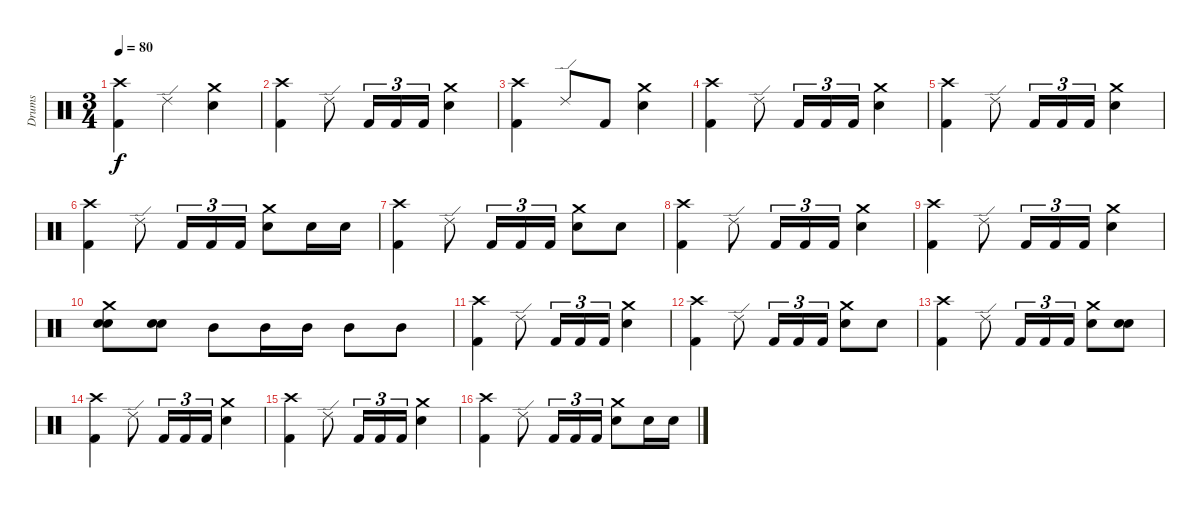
\track ("Drums" "Drums") {instrument percussion}
\staff {score}
\articulation defaults
\ts (3 4)
\tempo 80
\clef neutral
\ks c
("Crash high (hit)" "Kick (hit) 2").4{dy f} "Ride (edge) 2".4 ("Crash medium (hit)" "Electric Snare (hit)").4 |
("Crash high (hit)" "Kick (hit) 2").4 "Ride (edge) 2".8 "Kick (hit) 2".16{tu (3 2)} "Kick (hit) 2".16{tu (3 2)} "Kick (hit) 2".16{tu (3 2)} ("Crash medium (hit)" "Electric Snare (hit)").4 |
("Crash high (hit)" "Kick (hit) 2").4 "Ride (edge) 2".8 "Kick (hit) 2".8 ("Crash medium (hit)" "Electric Snare (hit)").4 |
("Crash high (hit)" "Kick (hit) 2").4 "Ride (edge) 2".8 "Kick (hit) 2".16{tu (3 2)} "Kick (hit) 2".16{tu (3 2)} "Kick (hit) 2".16{tu (3 2)} ("Crash medium (hit)" "Electric Snare (hit)").4 |
("Crash high (hit)" "Kick (hit) 2").4 "Ride (edge) 2".8 "Kick (hit) 2".16{tu (3 2)} "Kick (hit) 2".16{tu (3 2)} "Kick (hit) 2".16{tu (3 2)} ("Crash medium (hit)" "Electric Snare (hit)").4 |
("Crash high (hit)" "Kick (hit) 2").4 "Ride (edge) 2".8 "Kick (hit) 2".16{tu (3 2)} "Kick (hit) 2".16{tu (3 2)} "Kick (hit) 2".16{tu (3 2)} ("Crash medium (hit)" "Electric Snare (hit)").8 "Electric Snare (hit)".16 "Electric Snare (hit)".16 |
("Crash high (hit)" "Kick (hit) 2").4 "Ride (edge) 2".8 "Kick (hit) 2".16{tu (3 2)} "Kick (hit) 2".16{tu (3 2)} "Kick (hit) 2".16{tu (3 2)} ("Crash medium (hit)" "Electric Snare (hit)").8 "Electric Snare (hit)".8 |
("Crash high (hit)" "Kick (hit) 2").4 "Ride (edge) 2".8 "Kick (hit) 2".16{tu (3 2)} "Kick (hit) 2".16{tu (3 2)} "Kick (hit) 2".16{tu (3 2)} ("Crash medium (hit)" "Electric Snare (hit)").4 |
("Crash high (hit)" "Kick (hit) 2").4 "Ride (edge) 2".8 "Kick (hit) 2".16{tu (3 2)} "Kick (hit) 2".16{tu (3 2)} "Kick (hit) 2".16{tu (3 2)} ("Crash medium (hit)" "Electric Snare (hit)").4 |
("Crash medium (hit)" "Electric Snare (hit)" "Electric Snare (hit)").8{bu 120} ("Electric Snare (hit)" "Electric Snare (hit)").8{bu 120} "Mid Tom (hit)".8 "Mid Tom (hit)".16 "Mid Tom (hit)".16 "Mid Tom (hit)".8 "Mid Tom (hit)".8 |
("Crash high (hit)" "Kick (hit) 2").4 "Ride (edge) 2".8 "Kick (hit) 2".16{tu (3 2)} "Kick (hit) 2".16{tu (3 2)} "Kick (hit) 2".16{tu (3 2)} ("Crash medium (hit)" "Electric Snare (hit)").4 |
("Crash high (hit)" "Kick (hit) 2").4 "Ride (edge) 2".8 "Kick (hit) 2".16{tu (3 2)} "Kick (hit) 2".16{tu (3 2)} "Kick (hit) 2".16{tu (3 2)} ("Crash medium (hit)" "Electric Snare (hit)").8 "Electric Snare (hit)".8 |
("Crash high (hit)" "Kick (hit) 2").4 "Ride (edge) 2".8 "Kick (hit) 2".16{tu (3 2)} "Kick (hit) 2".16{tu (3 2)} "Kick (hit) 2".16{tu (3 2)} ("Crash medium (hit)" "Electric Snare (hit)").8 ("Electric Snare (hit)" "Electric Snare (hit)").8{bu 120} |
("Crash high (hit)" "Kick (hit) 2").4 "Ride (edge) 2".8 "Kick (hit) 2".16{tu (3 2)} "Kick (hit) 2".16{tu (3 2)} "Kick (hit) 2".16{tu (3 2)} ("Crash medium (hit)" "Electric Snare (hit)").4 |
("Crash high (hit)" "Kick (hit) 2").4 "Ride (edge) 2".8 "Kick (hit) 2".16{tu (3 2)} "Kick (hit) 2".16{tu (3 2)} "Kick (hit) 2".16{tu (3 2)} ("Crash medium (hit)" "Electric Snare (hit)").4 |
("Crash high (hit)" "Kick (hit) 2").4 "Ride (edge) 2".8 "Kick (hit) 2".16{tu (3 2)} "Kick (hit) 2".16{tu (3 2)} "Kick (hit) 2".16{tu (3 2)} ("Crash medium (hit)" "Electric Snare (hit)").8 "Electric Snare (hit)".16 "Electric Snare (hit)".16
